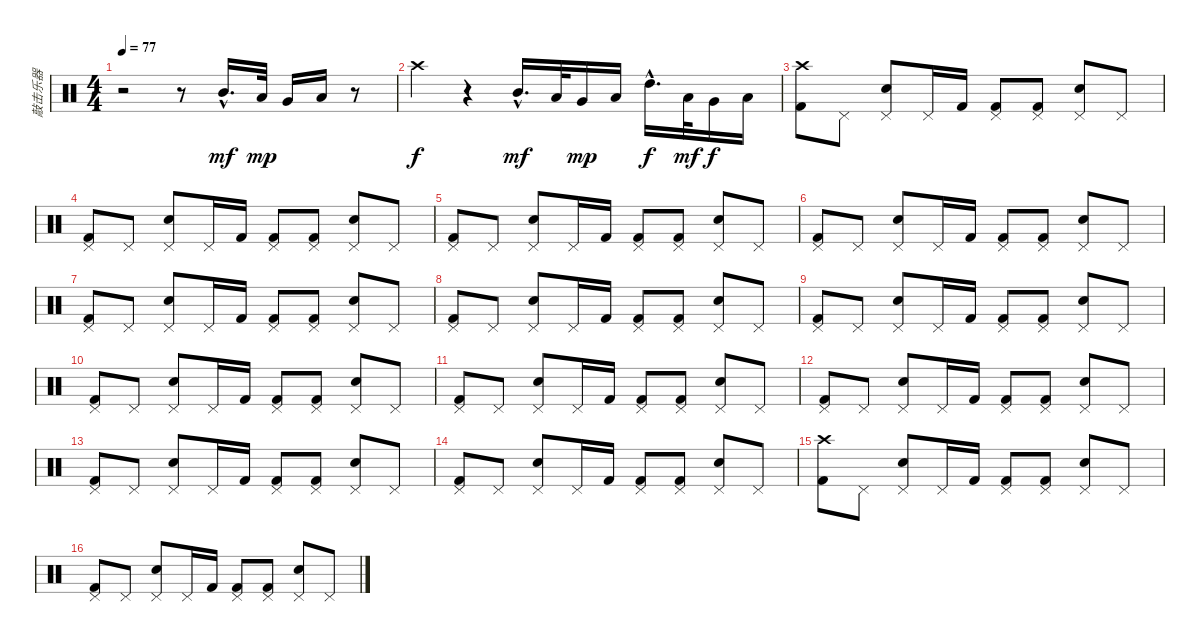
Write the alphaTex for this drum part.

\track ("敲击乐器" "敲击乐器") {instrument percussion}
\staff {score}
\articulation defaults
\ts (4 4)
\tempo 77
\clef neutral
\ks c
r.2{dy f} r.8 "Mid Tom (hit)"{hac}.16{d dy mf} "Low Tom (hit)".32{dy mp} "Very Low Tom (hit)".16 "Low Floor Tom (hit)".16 r.8 |
"Crash high (hit)".4{dy f} r.4 "Mid Tom (hit)"{hac}.16{d dy mf} "Low Tom (hit)".32 "Very Low Tom (hit)".16{dy mp} "Low Floor Tom (hit)".16 "High Tom (hit)"{hac}.16{d dy f} "Low Tom (hit)".32{dy mf} "Very Low Tom (hit)".16{dy f} "Low Floor Tom (hit)".16 |
("Crash high (hit)" "Kick (hit) 2").8 "Pedal Hi-Hat (hit)".8 ("Pedal Hi-Hat (hit)" "Snare (hit) 2").8 "Pedal Hi-Hat (hit)".16 "Kick (hit) 2".16 ("Pedal Hi-Hat (hit)" "Kick (hit) 2").8 ("Pedal Hi-Hat (hit)" "Kick (hit) 2").8 ("Pedal Hi-Hat (hit)" "Snare (hit) 2").8 "Pedal Hi-Hat (hit)".8 |
("Pedal Hi-Hat (hit)" "Kick (hit) 2").8 "Pedal Hi-Hat (hit)".8 ("Pedal Hi-Hat (hit)" "Snare (hit) 2").8 "Pedal Hi-Hat (hit)".16 "Kick (hit) 2".16 ("Pedal Hi-Hat (hit)" "Kick (hit) 2").8 ("Pedal Hi-Hat (hit)" "Kick (hit) 2").8 ("Pedal Hi-Hat (hit)" "Snare (hit) 2").8 "Pedal Hi-Hat (hit)".8 |
("Pedal Hi-Hat (hit)" "Kick (hit) 2").8 "Pedal Hi-Hat (hit)".8 ("Pedal Hi-Hat (hit)" "Snare (hit) 2").8 "Pedal Hi-Hat (hit)".16 "Kick (hit) 2".16 ("Pedal Hi-Hat (hit)" "Kick (hit) 2").8 ("Pedal Hi-Hat (hit)" "Kick (hit) 2").8 ("Pedal Hi-Hat (hit)" "Snare (hit) 2").8 "Pedal Hi-Hat (hit)".8 |
("Pedal Hi-Hat (hit)" "Kick (hit) 2").8 "Pedal Hi-Hat (hit)".8 ("Pedal Hi-Hat (hit)" "Snare (hit) 2").8 "Pedal Hi-Hat (hit)".16 "Kick (hit) 2".16 ("Pedal Hi-Hat (hit)" "Kick (hit) 2").8 ("Pedal Hi-Hat (hit)" "Kick (hit) 2").8 ("Pedal Hi-Hat (hit)" "Snare (hit) 2").8 "Pedal Hi-Hat (hit)".8 |
("Pedal Hi-Hat (hit)" "Kick (hit) 2").8 "Pedal Hi-Hat (hit)".8 ("Pedal Hi-Hat (hit)" "Snare (hit) 2").8 "Pedal Hi-Hat (hit)".16 "Kick (hit) 2".16 ("Pedal Hi-Hat (hit)" "Kick (hit) 2").8 ("Pedal Hi-Hat (hit)" "Kick (hit) 2").8 ("Pedal Hi-Hat (hit)" "Snare (hit) 2").8 "Pedal Hi-Hat (hit)".8 |
("Pedal Hi-Hat (hit)" "Kick (hit) 2").8 "Pedal Hi-Hat (hit)".8 ("Pedal Hi-Hat (hit)" "Snare (hit) 2").8 "Pedal Hi-Hat (hit)".16 "Kick (hit) 2".16 ("Pedal Hi-Hat (hit)" "Kick (hit) 2").8 ("Pedal Hi-Hat (hit)" "Kick (hit) 2").8 ("Pedal Hi-Hat (hit)" "Snare (hit) 2").8 "Pedal Hi-Hat (hit)".8 |
("Pedal Hi-Hat (hit)" "Kick (hit) 2").8 "Pedal Hi-Hat (hit)".8 ("Pedal Hi-Hat (hit)" "Snare (hit) 2").8 "Pedal Hi-Hat (hit)".16 "Kick (hit) 2".16 ("Pedal Hi-Hat (hit)" "Kick (hit) 2").8 ("Pedal Hi-Hat (hit)" "Kick (hit) 2").8 ("Pedal Hi-Hat (hit)" "Snare (hit) 2").8 "Pedal Hi-Hat (hit)".8 |
("Pedal Hi-Hat (hit)" "Kick (hit) 2").8 "Pedal Hi-Hat (hit)".8 ("Pedal Hi-Hat (hit)" "Snare (hit) 2").8 "Pedal Hi-Hat (hit)".16 "Kick (hit) 2".16 ("Pedal Hi-Hat (hit)" "Kick (hit) 2").8 ("Pedal Hi-Hat (hit)" "Kick (hit) 2").8 ("Pedal Hi-Hat (hit)" "Snare (hit) 2").8 "Pedal Hi-Hat (hit)".8 |
("Pedal Hi-Hat (hit)" "Kick (hit) 2").8 "Pedal Hi-Hat (hit)".8 ("Pedal Hi-Hat (hit)" "Snare (hit) 2").8 "Pedal Hi-Hat (hit)".16 "Kick (hit) 2".16 ("Pedal Hi-Hat (hit)" "Kick (hit) 2").8 ("Pedal Hi-Hat (hit)" "Kick (hit) 2").8 ("Pedal Hi-Hat (hit)" "Snare (hit) 2").8 "Pedal Hi-Hat (hit)".8 |
("Pedal Hi-Hat (hit)" "Kick (hit) 2").8 "Pedal Hi-Hat (hit)".8 ("Pedal Hi-Hat (hit)" "Snare (hit) 2").8 "Pedal Hi-Hat (hit)".16 "Kick (hit) 2".16 ("Pedal Hi-Hat (hit)" "Kick (hit) 2").8 ("Pedal Hi-Hat (hit)" "Kick (hit) 2").8 ("Pedal Hi-Hat (hit)" "Snare (hit) 2").8 "Pedal Hi-Hat (hit)".8 |
("Pedal Hi-Hat (hit)" "Kick (hit) 2").8 "Pedal Hi-Hat (hit)".8 ("Pedal Hi-Hat (hit)" "Snare (hit) 2").8 "Pedal Hi-Hat (hit)".16 "Kick (hit) 2".16 ("Pedal Hi-Hat (hit)" "Kick (hit) 2").8 ("Pedal Hi-Hat (hit)" "Kick (hit) 2").8 ("Pedal Hi-Hat (hit)" "Snare (hit) 2").8 "Pedal Hi-Hat (hit)".8 |
("Pedal Hi-Hat (hit)" "Kick (hit) 2").8 "Pedal Hi-Hat (hit)".8 ("Pedal Hi-Hat (hit)" "Snare (hit) 2").8 "Pedal Hi-Hat (hit)".16 "Kick (hit) 2".16 ("Pedal Hi-Hat (hit)" "Kick (hit) 2").8 ("Pedal Hi-Hat (hit)" "Kick (hit) 2").8 ("Pedal Hi-Hat (hit)" "Snare (hit) 2").8 "Pedal Hi-Hat (hit)".8 |
("Crash high (hit)" "Kick (hit) 2").8 "Pedal Hi-Hat (hit)".8 ("Pedal Hi-Hat (hit)" "Snare (hit) 2").8 "Pedal Hi-Hat (hit)".16 "Kick (hit) 2".16 ("Pedal Hi-Hat (hit)" "Kick (hit) 2").8 ("Pedal Hi-Hat (hit)" "Kick (hit) 2").8 ("Pedal Hi-Hat (hit)" "Snare (hit) 2").8 "Pedal Hi-Hat (hit)".8 |
("Pedal Hi-Hat (hit)" "Kick (hit) 2").8 "Pedal Hi-Hat (hit)".8 ("Pedal Hi-Hat (hit)" "Snare (hit) 2").8 "Pedal Hi-Hat (hit)".16 "Kick (hit) 2".16 ("Pedal Hi-Hat (hit)" "Kick (hit) 2").8 ("Pedal Hi-Hat (hit)" "Kick (hit) 2").8 ("Pedal Hi-Hat (hit)" "Snare (hit) 2").8 "Pedal Hi-Hat (hit)".8
